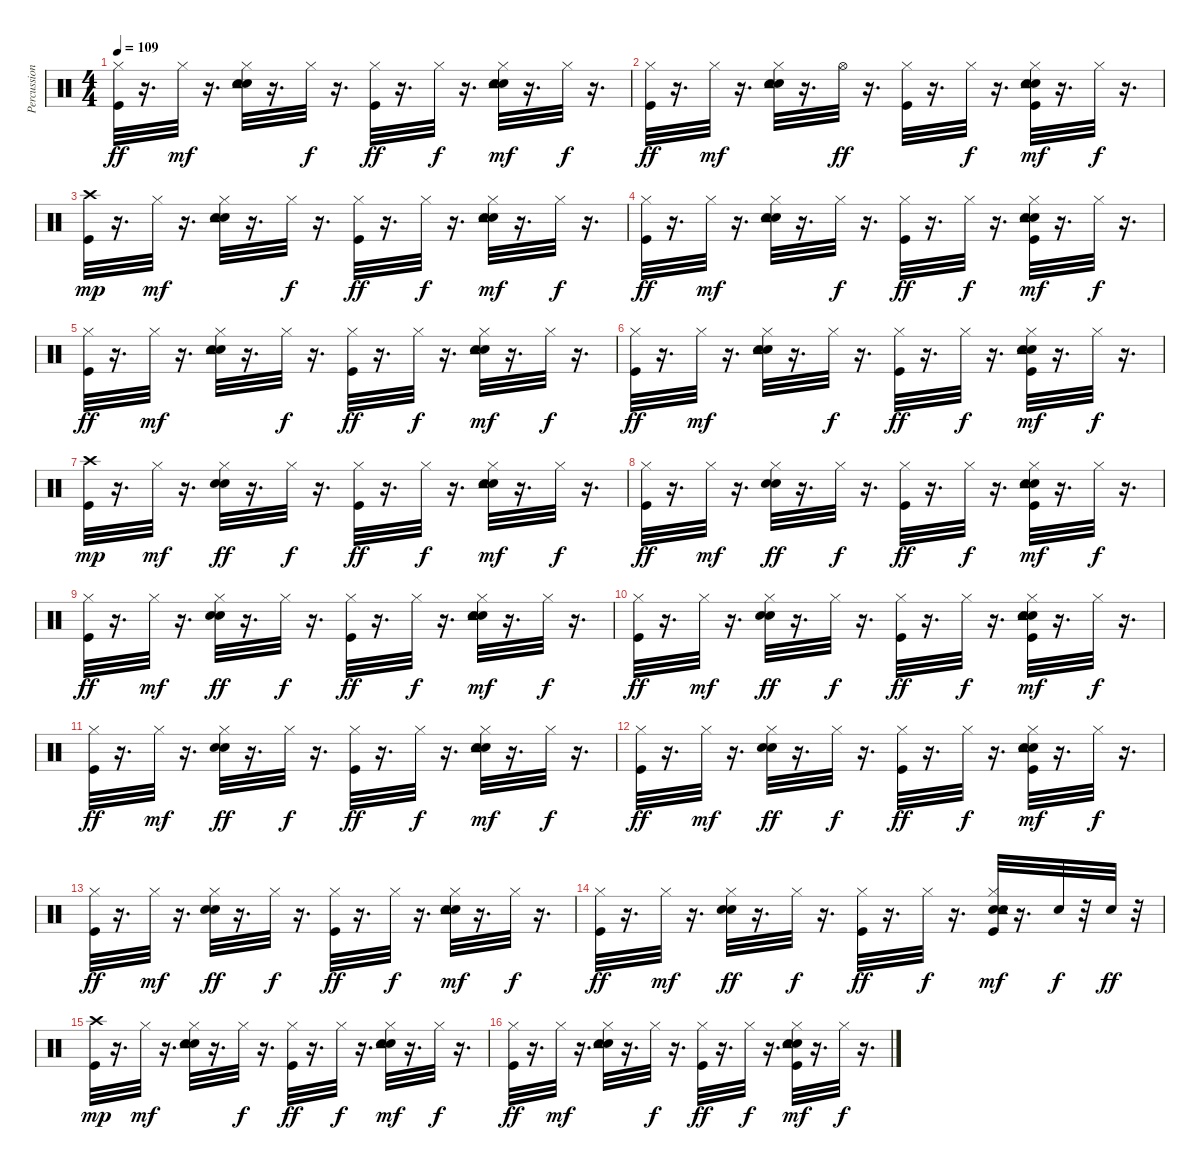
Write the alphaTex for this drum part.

\track ("Percussion" "Percussion") {instrument percussion}
\staff {score}
\articulation defaults
\ts (4 4)
\tempo 109
\clef neutral
\ks c
("Kick (hit)" "Hi-Hat (closed)").32{dy ff} r.16{d} "Hi-Hat (closed)".32{dy mf} r.16{d} ("Snare (hit) 2" "Hand Clap (hit)" "Hi-Hat (closed)" "Tambourine (hit)").32 r.16{d} "Hi-Hat (closed)".32{dy f} r.16{d} ("Kick (hit)" "Hi-Hat (closed)").32{dy ff} r.16{d} "Hi-Hat (closed)".32{dy f} r.16{d} ("Snare (hit) 2" "Hand Clap (hit)" "Hi-Hat (closed)" "Tambourine (hit)").32{dy mf} r.16{d} "Hi-Hat (closed)".32{dy f} r.16{d} |
("Kick (hit)" "Hi-Hat (closed)").32{dy ff} r.16{d} "Hi-Hat (closed)".32{dy mf} r.16{d} ("Snare (hit) 2" "Hand Clap (hit)" "Hi-Hat (closed)" "Tambourine (hit)").32 r.16{d} "Hi-Hat (open)".32{dy ff} r.16{d} ("Kick (hit)" "Hi-Hat (closed)").32 r.16{d} "Hi-Hat (closed)".32{dy f} r.16{d} ("Kick (hit)" "Snare (hit) 2" "Hand Clap (hit)" "Hi-Hat (closed)" "Tambourine (hit)").32{dy mf} r.16{d} "Hi-Hat (closed)".32{dy f} r.16{d} |
("Kick (hit)" "Crash high (hit)").32{dy mp} r.16{d} "Hi-Hat (closed)".32{dy mf} r.16{d} ("Snare (hit) 2" "Hand Clap (hit)" "Hi-Hat (closed)" "Tambourine (hit)").32 r.16{d} "Hi-Hat (closed)".32{dy f} r.16{d} ("Kick (hit)" "Hi-Hat (closed)").32{dy ff} r.16{d} "Hi-Hat (closed)".32{dy f} r.16{d} ("Snare (hit) 2" "Hand Clap (hit)" "Hi-Hat (closed)" "Tambourine (hit)").32{dy mf} r.16{d} "Hi-Hat (closed)".32{dy f} r.16{d} |
("Kick (hit)" "Hi-Hat (closed)").32{dy ff} r.16{d} "Hi-Hat (closed)".32{dy mf} r.16{d} ("Snare (hit) 2" "Hand Clap (hit)" "Hi-Hat (closed)" "Tambourine (hit)").32 r.16{d} "Hi-Hat (closed)".32{dy f} r.16{d} ("Kick (hit)" "Hi-Hat (closed)").32{dy ff} r.16{d} "Hi-Hat (closed)".32{dy f} r.16{d} ("Kick (hit)" "Snare (hit) 2" "Hand Clap (hit)" "Hi-Hat (closed)" "Tambourine (hit)").32{dy mf} r.16{d} "Hi-Hat (closed)".32{dy f} r.16{d} |
("Kick (hit)" "Hi-Hat (closed)").32{dy ff} r.16{d} "Hi-Hat (closed)".32{dy mf} r.16{d} ("Snare (hit) 2" "Hand Clap (hit)" "Hi-Hat (closed)" "Tambourine (hit)").32 r.16{d} "Hi-Hat (closed)".32{dy f} r.16{d} ("Kick (hit)" "Hi-Hat (closed)").32{dy ff} r.16{d} "Hi-Hat (closed)".32{dy f} r.16{d} ("Snare (hit) 2" "Hand Clap (hit)" "Hi-Hat (closed)" "Tambourine (hit)").32{dy mf} r.16{d} "Hi-Hat (closed)".32{dy f} r.16{d} |
("Kick (hit)" "Hi-Hat (closed)").32{dy ff} r.16{d} "Hi-Hat (closed)".32{dy mf} r.16{d} ("Snare (hit) 2" "Hand Clap (hit)" "Hi-Hat (closed)" "Tambourine (hit)").32 r.16{d} "Hi-Hat (closed)".32{dy f} r.16{d} ("Kick (hit)" "Hi-Hat (closed)").32{dy ff} r.16{d} "Hi-Hat (closed)".32{dy f} r.16{d} ("Kick (hit)" "Snare (hit) 2" "Hand Clap (hit)" "Hi-Hat (closed)" "Tambourine (hit)").32{dy mf} r.16{d} "Hi-Hat (closed)".32{dy f} r.16{d} |
("Kick (hit)" "Crash high (hit)").32{dy mp} r.16{d} "Hi-Hat (closed)".32{dy mf} r.16{d} ("Snare (hit) 2" "Hand Clap (hit)" "Hi-Hat (closed)").32{dy ff} r.16{d} "Hi-Hat (closed)".32{dy f} r.16{d} ("Kick (hit)" "Hi-Hat (closed)").32{dy ff} r.16{d} "Hi-Hat (closed)".32{dy f} r.16{d} ("Snare (hit) 2" "Hand Clap (hit)" "Hi-Hat (closed)" "Tambourine (hit)").32{dy mf} r.16{d} "Hi-Hat (closed)".32{dy f} r.16{d} |
("Kick (hit)" "Hi-Hat (closed)").32{dy ff} r.16{d} "Hi-Hat (closed)".32{dy mf} r.16{d} ("Snare (hit) 2" "Hand Clap (hit)" "Hi-Hat (closed)").32{dy ff} r.16{d} "Hi-Hat (closed)".32{dy f} r.16{d} ("Kick (hit)" "Hi-Hat (closed)").32{dy ff} r.16{d} "Hi-Hat (closed)".32{dy f} r.16{d} ("Kick (hit)" "Snare (hit) 2" "Hand Clap (hit)" "Hi-Hat (closed)" "Tambourine (hit)").32{dy mf} r.16{d} "Hi-Hat (closed)".32{dy f} r.16{d} |
("Kick (hit)" "Hi-Hat (closed)").32{dy ff} r.16{d} "Hi-Hat (closed)".32{dy mf} r.16{d} ("Snare (hit) 2" "Hand Clap (hit)" "Hi-Hat (closed)").32{dy ff} r.16{d} "Hi-Hat (closed)".32{dy f} r.16{d} ("Kick (hit)" "Hi-Hat (closed)").32{dy ff} r.16{d} "Hi-Hat (closed)".32{dy f} r.16{d} ("Snare (hit) 2" "Hand Clap (hit)" "Hi-Hat (closed)" "Tambourine (hit)").32{dy mf} r.16{d} "Hi-Hat (closed)".32{dy f} r.16{d} |
("Kick (hit)" "Hi-Hat (closed)").32{dy ff} r.16{d} "Hi-Hat (closed)".32{dy mf} r.16{d} ("Snare (hit) 2" "Hand Clap (hit)" "Hi-Hat (closed)").32{dy ff} r.16{d} "Hi-Hat (closed)".32{dy f} r.16{d} ("Kick (hit)" "Hi-Hat (closed)").32{dy ff} r.16{d} "Hi-Hat (closed)".32{dy f} r.16{d} ("Kick (hit)" "Snare (hit) 2" "Hand Clap (hit)" "Hi-Hat (closed)" "Tambourine (hit)").32{dy mf} r.16{d} "Hi-Hat (closed)".32{dy f} r.16{d} |
("Kick (hit)" "Hi-Hat (closed)").32{dy ff} r.16{d} "Hi-Hat (closed)".32{dy mf} r.16{d} ("Snare (hit) 2" "Hand Clap (hit)" "Hi-Hat (closed)").32{dy ff} r.16{d} "Hi-Hat (closed)".32{dy f} r.16{d} ("Kick (hit)" "Hi-Hat (closed)").32{dy ff} r.16{d} "Hi-Hat (closed)".32{dy f} r.16{d} ("Snare (hit) 2" "Hand Clap (hit)" "Hi-Hat (closed)" "Tambourine (hit)").32{dy mf} r.16{d} "Hi-Hat (closed)".32{dy f} r.16{d} |
("Kick (hit)" "Hi-Hat (closed)").32{dy ff} r.16{d} "Hi-Hat (closed)".32{dy mf} r.16{d} ("Snare (hit) 2" "Hand Clap (hit)" "Hi-Hat (closed)").32{dy ff} r.16{d} "Hi-Hat (closed)".32{dy f} r.16{d} ("Kick (hit)" "Hi-Hat (closed)").32{dy ff} r.16{d} "Hi-Hat (closed)".32{dy f} r.16{d} ("Kick (hit)" "Snare (hit) 2" "Hand Clap (hit)" "Hi-Hat (closed)" "Tambourine (hit)").32{dy mf} r.16{d} "Hi-Hat (closed)".32{dy f} r.16{d} |
("Kick (hit)" "Hi-Hat (closed)").32{dy ff} r.16{d} "Hi-Hat (closed)".32{dy mf} r.16{d} ("Snare (hit) 2" "Hand Clap (hit)" "Hi-Hat (closed)").32{dy ff} r.16{d} "Hi-Hat (closed)".32{dy f} r.16{d} ("Kick (hit)" "Hi-Hat (closed)").32{dy ff} r.16{d} "Hi-Hat (closed)".32{dy f} r.16{d} ("Snare (hit) 2" "Hand Clap (hit)" "Hi-Hat (closed)" "Tambourine (hit)").32{dy mf} r.16{d} "Hi-Hat (closed)".32{dy f} r.16{d} |
("Kick (hit)" "Hi-Hat (closed)").32{dy ff} r.16{d} "Hi-Hat (closed)".32{dy mf} r.16{d} ("Snare (hit) 2" "Hand Clap (hit)" "Hi-Hat (closed)").32{dy ff} r.16{d} "Hi-Hat (closed)".32{dy f} r.16{d} ("Kick (hit)" "Hi-Hat (closed)").32{dy ff} r.16{d} "Hi-Hat (closed)".32{dy f} r.16{d} ("Kick (hit)" "Snare (hit) 2" "Hand Clap (hit)" "Hi-Hat (closed)" "Tambourine (hit)").32{dy mf} r.16{d} "Snare (hit) 2".32{dy f} r.32 "Snare (hit) 2".32{dy ff} r.32 |
("Kick (hit)" "Crash high (hit)").32{dy mp} r.16{d} "Hi-Hat (closed)".32{dy mf} r.16{d} ("Snare (hit) 2" "Hand Clap (hit)" "Hi-Hat (closed)" "Tambourine (hit)").32 r.16{d} "Hi-Hat (closed)".32{dy f} r.16{d} ("Kick (hit)" "Hi-Hat (closed)").32{dy ff} r.16{d} "Hi-Hat (closed)".32{dy f} r.16{d} ("Snare (hit) 2" "Hand Clap (hit)" "Hi-Hat (closed)" "Tambourine (hit)").32{dy mf} r.16{d} "Hi-Hat (closed)".32{dy f} r.16{d} |
("Kick (hit)" "Hi-Hat (closed)").32{dy ff} r.16{d} "Hi-Hat (closed)".32{dy mf} r.16{d} ("Snare (hit) 2" "Hand Clap (hit)" "Hi-Hat (closed)" "Tambourine (hit)").32 r.16{d} "Hi-Hat (closed)".32{dy f} r.16{d} ("Kick (hit)" "Hi-Hat (closed)").32{dy ff} r.16{d} "Hi-Hat (closed)".32{dy f} r.16{d} ("Kick (hit)" "Snare (hit) 2" "Hand Clap (hit)" "Hi-Hat (closed)" "Tambourine (hit)").32{dy mf} r.16{d} "Hi-Hat (closed)".32{dy f} r.16{d}
